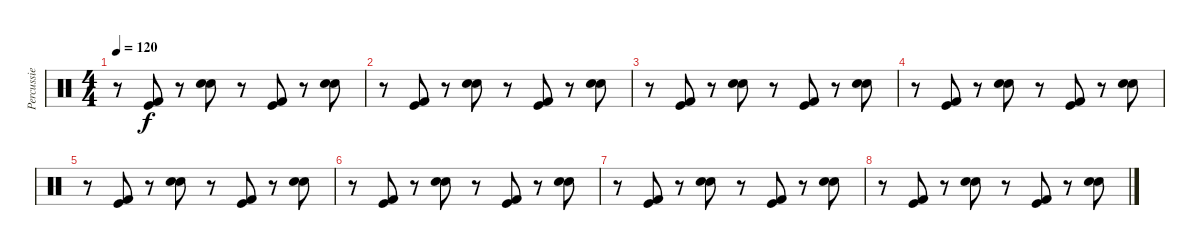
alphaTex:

\track ("Percussie" "Percussie") {instrument percussion}
\staff {score}
\articulation defaults
\ts (4 4)
\tempo 120
\clef neutral
\ks c
r.8{dy f} ("Kick (hit)" "Kick (hit) 2").8 r.8 ("Electric Snare (hit)" "Snare (hit) 2").8 r.8 ("Kick (hit)" "Kick (hit) 2").8 r.8 ("Electric Snare (hit)" "Snare (hit) 2").8 |
r.8 ("Kick (hit)" "Kick (hit) 2").8 r.8 ("Electric Snare (hit)" "Snare (hit) 2").8 r.8 ("Kick (hit)" "Kick (hit) 2").8 r.8 ("Electric Snare (hit)" "Snare (hit) 2").8 |
r.8 ("Kick (hit)" "Kick (hit) 2").8 r.8 ("Electric Snare (hit)" "Snare (hit) 2").8 r.8 ("Kick (hit)" "Kick (hit) 2").8 r.8 ("Electric Snare (hit)" "Snare (hit) 2").8 |
r.8 ("Kick (hit)" "Kick (hit) 2").8 r.8 ("Electric Snare (hit)" "Snare (hit) 2").8 r.8 ("Kick (hit)" "Kick (hit) 2").8 r.8 ("Electric Snare (hit)" "Snare (hit) 2").8 |
r.8 ("Kick (hit)" "Kick (hit) 2").8 r.8 ("Electric Snare (hit)" "Snare (hit) 2").8 r.8 ("Kick (hit)" "Kick (hit) 2").8 r.8 ("Electric Snare (hit)" "Snare (hit) 2").8 |
r.8 ("Kick (hit)" "Kick (hit) 2").8 r.8 ("Electric Snare (hit)" "Snare (hit) 2").8 r.8 ("Kick (hit)" "Kick (hit) 2").8 r.8 ("Electric Snare (hit)" "Snare (hit) 2").8 |
r.8 ("Kick (hit)" "Kick (hit) 2").8 r.8 ("Electric Snare (hit)" "Snare (hit) 2").8 r.8 ("Kick (hit)" "Kick (hit) 2").8 r.8 ("Electric Snare (hit)" "Snare (hit) 2").8 |
r.8 ("Kick (hit)" "Kick (hit) 2").8 r.8 ("Electric Snare (hit)" "Snare (hit) 2").8 r.8 ("Kick (hit)" "Kick (hit) 2").8 r.8 ("Electric Snare (hit)" "Snare (hit) 2").8
